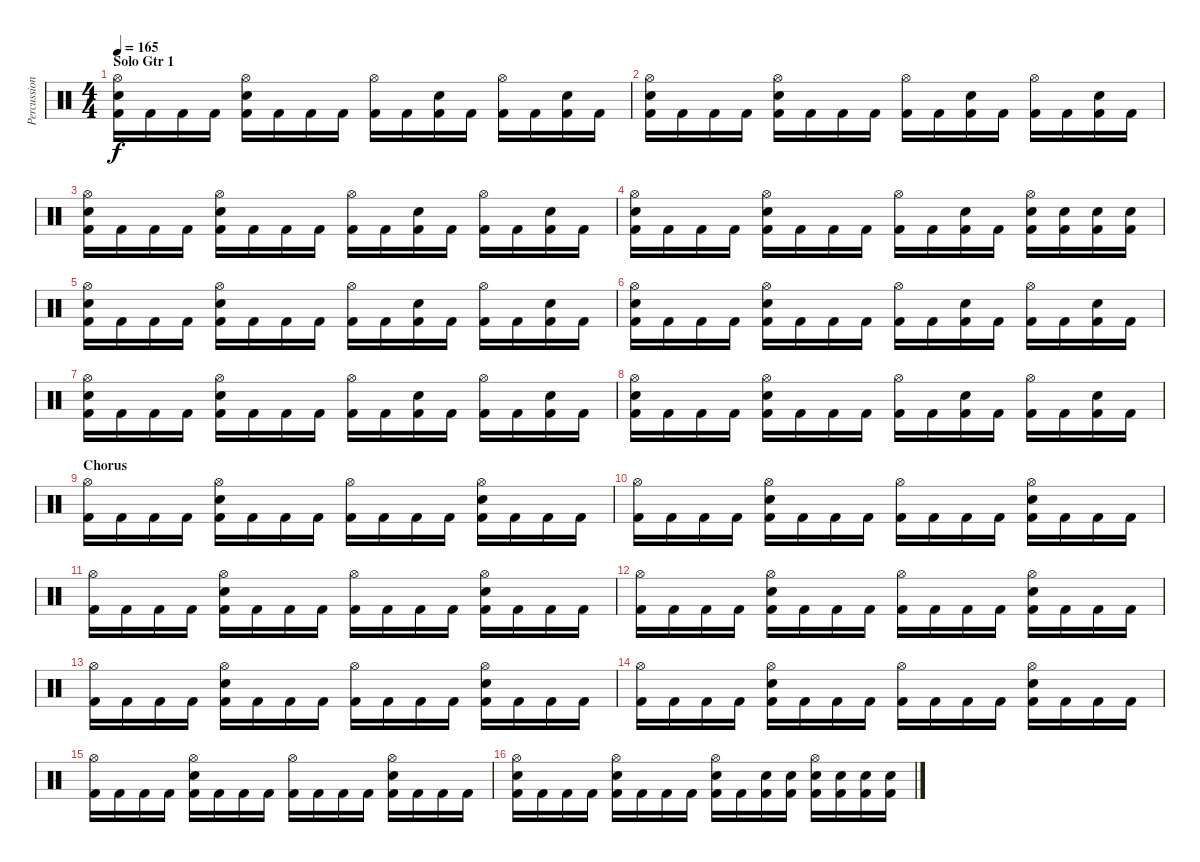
\track ("Percussion" "Percussion") {instrument percussion}
\staff {score}
\articulation defaults
\ts (4 4)
\section ("" "Solo Gtr 1")
\tempo 165
\clef neutral
\ks c
("Hi-Hat (open)" "Snare (hit) 2" "Kick (hit) 2").16{dy f} "Kick (hit) 2".16 "Kick (hit) 2".16 "Kick (hit) 2".16 ("Hi-Hat (open)" "Snare (hit) 2" "Kick (hit) 2").16 "Kick (hit) 2".16 "Kick (hit) 2".16 "Kick (hit) 2".16 ("Hi-Hat (open)" "Kick (hit) 2").16 "Kick (hit) 2".16 ("Snare (hit) 2" "Kick (hit) 2").16 "Kick (hit) 2".16 ("Hi-Hat (open)" "Kick (hit) 2").16 "Kick (hit) 2".16 ("Snare (hit) 2" "Kick (hit) 2").16 "Kick (hit) 2".16 |
("Hi-Hat (open)" "Snare (hit) 2" "Kick (hit) 2").16 "Kick (hit) 2".16 "Kick (hit) 2".16 "Kick (hit) 2".16 ("Hi-Hat (open)" "Snare (hit) 2" "Kick (hit) 2").16 "Kick (hit) 2".16 "Kick (hit) 2".16 "Kick (hit) 2".16 ("Hi-Hat (open)" "Kick (hit) 2").16 "Kick (hit) 2".16 ("Snare (hit) 2" "Kick (hit) 2").16 "Kick (hit) 2".16 ("Hi-Hat (open)" "Kick (hit) 2").16 "Kick (hit) 2".16 ("Snare (hit) 2" "Kick (hit) 2").16 "Kick (hit) 2".16 |
("Hi-Hat (open)" "Snare (hit) 2" "Kick (hit) 2").16 "Kick (hit) 2".16 "Kick (hit) 2".16 "Kick (hit) 2".16 ("Hi-Hat (open)" "Snare (hit) 2" "Kick (hit) 2").16 "Kick (hit) 2".16 "Kick (hit) 2".16 "Kick (hit) 2".16 ("Hi-Hat (open)" "Kick (hit) 2").16 "Kick (hit) 2".16 ("Snare (hit) 2" "Kick (hit) 2").16 "Kick (hit) 2".16 ("Hi-Hat (open)" "Kick (hit) 2").16 "Kick (hit) 2".16 ("Snare (hit) 2" "Kick (hit) 2").16 "Kick (hit) 2".16 |
("Hi-Hat (open)" "Snare (hit) 2" "Kick (hit) 2").16 "Kick (hit) 2".16 "Kick (hit) 2".16 "Kick (hit) 2".16 ("Hi-Hat (open)" "Snare (hit) 2" "Kick (hit) 2").16 "Kick (hit) 2".16 "Kick (hit) 2".16 "Kick (hit) 2".16 ("Hi-Hat (open)" "Kick (hit) 2").16 "Kick (hit) 2".16 ("Snare (hit) 2" "Kick (hit) 2").16 "Kick (hit) 2".16 ("Hi-Hat (open)" "Snare (hit) 2" "Kick (hit) 2").16 ("Snare (hit) 2" "Kick (hit) 2").16 ("Snare (hit) 2" "Kick (hit) 2").16 ("Snare (hit) 2" "Kick (hit) 2").16 |
("Hi-Hat (open)" "Snare (hit) 2" "Kick (hit) 2").16 "Kick (hit) 2".16 "Kick (hit) 2".16 "Kick (hit) 2".16 ("Hi-Hat (open)" "Snare (hit) 2" "Kick (hit) 2").16 "Kick (hit) 2".16 "Kick (hit) 2".16 "Kick (hit) 2".16 ("Hi-Hat (open)" "Kick (hit) 2").16 "Kick (hit) 2".16 ("Snare (hit) 2" "Kick (hit) 2").16 "Kick (hit) 2".16 ("Hi-Hat (open)" "Kick (hit) 2").16 "Kick (hit) 2".16 ("Snare (hit) 2" "Kick (hit) 2").16 "Kick (hit) 2".16 |
("Hi-Hat (open)" "Snare (hit) 2" "Kick (hit) 2").16 "Kick (hit) 2".16 "Kick (hit) 2".16 "Kick (hit) 2".16 ("Hi-Hat (open)" "Snare (hit) 2" "Kick (hit) 2").16 "Kick (hit) 2".16 "Kick (hit) 2".16 "Kick (hit) 2".16 ("Hi-Hat (open)" "Kick (hit) 2").16 "Kick (hit) 2".16 ("Snare (hit) 2" "Kick (hit) 2").16 "Kick (hit) 2".16 ("Hi-Hat (open)" "Kick (hit) 2").16 "Kick (hit) 2".16 ("Snare (hit) 2" "Kick (hit) 2").16 "Kick (hit) 2".16 |
("Hi-Hat (open)" "Snare (hit) 2" "Kick (hit) 2").16 "Kick (hit) 2".16 "Kick (hit) 2".16 "Kick (hit) 2".16 ("Hi-Hat (open)" "Snare (hit) 2" "Kick (hit) 2").16 "Kick (hit) 2".16 "Kick (hit) 2".16 "Kick (hit) 2".16 ("Hi-Hat (open)" "Kick (hit) 2").16 "Kick (hit) 2".16 ("Snare (hit) 2" "Kick (hit) 2").16 "Kick (hit) 2".16 ("Hi-Hat (open)" "Kick (hit) 2").16 "Kick (hit) 2".16 ("Snare (hit) 2" "Kick (hit) 2").16 "Kick (hit) 2".16 |
("Hi-Hat (open)" "Snare (hit) 2" "Kick (hit) 2").16 "Kick (hit) 2".16 "Kick (hit) 2".16 "Kick (hit) 2".16 ("Hi-Hat (open)" "Snare (hit) 2" "Kick (hit) 2").16 "Kick (hit) 2".16 "Kick (hit) 2".16 "Kick (hit) 2".16 ("Hi-Hat (open)" "Kick (hit) 2").16 "Kick (hit) 2".16 ("Snare (hit) 2" "Kick (hit) 2").16 "Kick (hit) 2".16 ("Hi-Hat (open)" "Kick (hit) 2").16 "Kick (hit) 2".16 ("Snare (hit) 2" "Kick (hit) 2").16 "Kick (hit) 2".16 |
\section ("" "Chorus")
("Hi-Hat (open)" "Kick (hit) 2").16 "Kick (hit) 2".16 "Kick (hit) 2".16 "Kick (hit) 2".16 ("Hi-Hat (open)" "Snare (hit) 2" "Kick (hit) 2").16 "Kick (hit) 2".16 "Kick (hit) 2".16 "Kick (hit) 2".16 ("Hi-Hat (open)" "Kick (hit) 2").16 "Kick (hit) 2".16 "Kick (hit) 2".16 "Kick (hit) 2".16 ("Hi-Hat (open)" "Snare (hit) 2" "Kick (hit) 2").16 "Kick (hit) 2".16 "Kick (hit) 2".16 "Kick (hit) 2".16 |
("Hi-Hat (open)" "Kick (hit) 2").16 "Kick (hit) 2".16 "Kick (hit) 2".16 "Kick (hit) 2".16 ("Hi-Hat (open)" "Snare (hit) 2" "Kick (hit) 2").16 "Kick (hit) 2".16 "Kick (hit) 2".16 "Kick (hit) 2".16 ("Hi-Hat (open)" "Kick (hit) 2").16 "Kick (hit) 2".16 "Kick (hit) 2".16 "Kick (hit) 2".16 ("Hi-Hat (open)" "Snare (hit) 2" "Kick (hit) 2").16 "Kick (hit) 2".16 "Kick (hit) 2".16 "Kick (hit) 2".16 |
("Hi-Hat (open)" "Kick (hit) 2").16 "Kick (hit) 2".16 "Kick (hit) 2".16 "Kick (hit) 2".16 ("Hi-Hat (open)" "Snare (hit) 2" "Kick (hit) 2").16 "Kick (hit) 2".16 "Kick (hit) 2".16 "Kick (hit) 2".16 ("Hi-Hat (open)" "Kick (hit) 2").16 "Kick (hit) 2".16 "Kick (hit) 2".16 "Kick (hit) 2".16 ("Hi-Hat (open)" "Snare (hit) 2" "Kick (hit) 2").16 "Kick (hit) 2".16 "Kick (hit) 2".16 "Kick (hit) 2".16 |
("Hi-Hat (open)" "Kick (hit) 2").16 "Kick (hit) 2".16 "Kick (hit) 2".16 "Kick (hit) 2".16 ("Hi-Hat (open)" "Snare (hit) 2" "Kick (hit) 2").16 "Kick (hit) 2".16 "Kick (hit) 2".16 "Kick (hit) 2".16 ("Hi-Hat (open)" "Kick (hit) 2").16 "Kick (hit) 2".16 "Kick (hit) 2".16 "Kick (hit) 2".16 ("Hi-Hat (open)" "Snare (hit) 2" "Kick (hit) 2").16 "Kick (hit) 2".16 "Kick (hit) 2".16 "Kick (hit) 2".16 |
("Hi-Hat (open)" "Kick (hit) 2").16 "Kick (hit) 2".16 "Kick (hit) 2".16 "Kick (hit) 2".16 ("Hi-Hat (open)" "Snare (hit) 2" "Kick (hit) 2").16 "Kick (hit) 2".16 "Kick (hit) 2".16 "Kick (hit) 2".16 ("Hi-Hat (open)" "Kick (hit) 2").16 "Kick (hit) 2".16 "Kick (hit) 2".16 "Kick (hit) 2".16 ("Hi-Hat (open)" "Snare (hit) 2" "Kick (hit) 2").16 "Kick (hit) 2".16 "Kick (hit) 2".16 "Kick (hit) 2".16 |
("Hi-Hat (open)" "Kick (hit) 2").16 "Kick (hit) 2".16 "Kick (hit) 2".16 "Kick (hit) 2".16 ("Hi-Hat (open)" "Snare (hit) 2" "Kick (hit) 2").16 "Kick (hit) 2".16 "Kick (hit) 2".16 "Kick (hit) 2".16 ("Hi-Hat (open)" "Kick (hit) 2").16 "Kick (hit) 2".16 "Kick (hit) 2".16 "Kick (hit) 2".16 ("Hi-Hat (open)" "Snare (hit) 2" "Kick (hit) 2").16 "Kick (hit) 2".16 "Kick (hit) 2".16 "Kick (hit) 2".16 |
("Hi-Hat (open)" "Kick (hit) 2").16 "Kick (hit) 2".16 "Kick (hit) 2".16 "Kick (hit) 2".16 ("Hi-Hat (open)" "Snare (hit) 2" "Kick (hit) 2").16 "Kick (hit) 2".16 "Kick (hit) 2".16 "Kick (hit) 2".16 ("Hi-Hat (open)" "Kick (hit) 2").16 "Kick (hit) 2".16 "Kick (hit) 2".16 "Kick (hit) 2".16 ("Hi-Hat (open)" "Snare (hit) 2" "Kick (hit) 2").16 "Kick (hit) 2".16 "Kick (hit) 2".16 "Kick (hit) 2".16 |
("Hi-Hat (open)" "Snare (hit) 2" "Kick (hit) 2").16 "Kick (hit) 2".16 "Kick (hit) 2".16 "Kick (hit) 2".16 ("Hi-Hat (open)" "Snare (hit) 2" "Kick (hit) 2").16 "Kick (hit) 2".16 "Kick (hit) 2".16 "Kick (hit) 2".16 ("Hi-Hat (open)" "Snare (hit) 2" "Kick (hit) 2").16 "Kick (hit) 2".16 ("Snare (hit) 2" "Kick (hit) 2").16 ("Snare (hit) 2" "Kick (hit) 2").16 ("Hi-Hat (open)" "Snare (hit) 2" "Kick (hit) 2").16 ("Snare (hit) 2" "Kick (hit) 2").16 ("Snare (hit) 2" "Kick (hit) 2").16 ("Snare (hit) 2" "Kick (hit) 2").16
